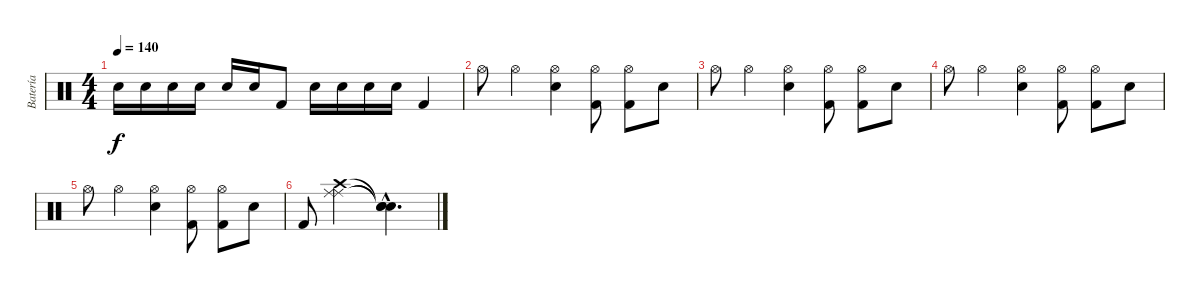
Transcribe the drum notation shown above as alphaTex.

\track ("Batería" "Batería") {instrument percussion}
\staff {score}
\articulation defaults
\ts (4 4)
\tempo 140
\clef neutral
\ks c "Snare (hit) 2".16{dy f} "Snare (hit) 2".16 "Snare (hit) 2".16 "Snare (hit) 2".16 "Snare (hit) 2".16 "Snare (hit) 2".16 "Kick (hit) 2".8 "Snare (hit) 2".16 "Snare (hit) 2".16 "Snare (hit) 2".16 "Snare (hit) 2".16 "Kick (hit) 2".4
|
"Hi-Hat (open)".8 "Hi-Hat (open)".4 ("Hi-Hat (open)" "Snare (hit) 2").4 ("Hi-Hat (open)" "Kick (hit) 2").8 ("Hi-Hat (open)" "Kick (hit) 2").8 "Snare (hit) 2".8 |
"Hi-Hat (open)".8 "Hi-Hat (open)".4 ("Hi-Hat (open)" "Snare (hit) 2").4 ("Hi-Hat (open)" "Kick (hit) 2").8 ("Hi-Hat (open)" "Kick (hit) 2").8 "Snare (hit) 2".8 |
"Hi-Hat (open)".8 "Hi-Hat (open)".4 ("Hi-Hat (open)" "Snare (hit) 2").4 ("Hi-Hat (open)" "Kick (hit) 2").8 ("Hi-Hat (open)" "Kick (hit) 2").8 "Snare (hit) 2".8 |
"Hi-Hat (open)".8 "Hi-Hat (open)".4 ("Hi-Hat (open)" "Snare (hit) 2").4 ("Hi-Hat (open)" "Kick (hit) 2").8 ("Hi-Hat (open)" "Kick (hit) 2").8 "Snare (hit) 2".8 |
"Kick (hit) 2".8 ("Ride (middle)" "Ride (middle)" "Crash high (hit)").2 ("Snare (hit)"{hac t} "Snare (hit)"{hac t} "Snare (hit)"{hac t}).4{d}
